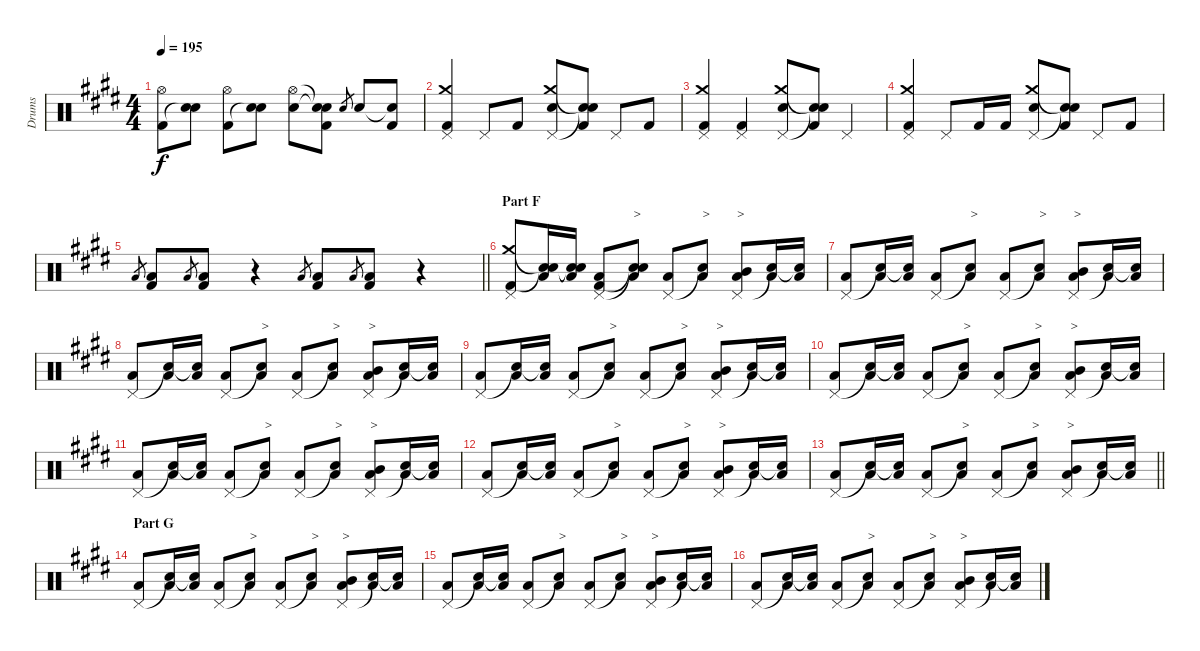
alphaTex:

\track ("Drums" "Drums") {instrument percussion}
\staff {score}
\articulation defaults
\ts (4 4)
\tempo 195
\clef neutral
\ks e
("Hi-Hat (open)" "Kick (hit) 2").8{dy f} ("Electric Snare (hit)" "Snare (hit)"{t}).8 ("Hi-Hat (open)" "Kick (hit) 2").8 ("Electric Snare (hit)" "Snare (hit)"{t}).8 ("Hi-Hat (open)" "Electric Snare (hit)").8 ("Snare (hit)"{t} "Snare (hit)"{t} "Kick (hit) 2").8 "Electric Snare (hit)".8{gr} "Electric Snare (hit)".8 ("Snare (hit)"{t} "Kick (hit) 2").8 |
("Crash medium (hit)" "Pedal Hi-Hat (hit)" "Kick (hit) 2").4 "Pedal Hi-Hat (hit)".8 "Kick (hit) 2".8 ("Crash medium (hit)" "Pedal Hi-Hat (hit)" "Electric Snare (hit)").8 ("Snare (hit)"{t} "Snare (hit)"{t} "Kick (hit) 2").8 "Pedal Hi-Hat (hit)".8 "Kick (hit) 2".8 |
("Crash medium (hit)" "Pedal Hi-Hat (hit)" "Kick (hit) 2").4 ("Pedal Hi-Hat (hit)" "Kick (hit) 2").4 ("Crash medium (hit)" "Pedal Hi-Hat (hit)" "Electric Snare (hit)").8 ("Snare (hit)"{t} "Snare (hit)"{t} "Kick (hit) 2").8 "Pedal Hi-Hat (hit)".4 |
("Crash medium (hit)" "Pedal Hi-Hat (hit)" "Kick (hit) 2").4 "Pedal Hi-Hat (hit)".8 "Kick (hit) 2".16 "Kick (hit) 2".16 ("Crash medium (hit)" "Pedal Hi-Hat (hit)" "Electric Snare (hit)").8 ("Snare (hit)"{t} "Snare (hit)"{t} "Kick (hit) 2").8 "Pedal Hi-Hat (hit)".8 "Kick (hit) 2".8 |
\barLineRight lightlight "Low Floor Tom (hit)".8{gr}
("Low Floor Tom (hit)" "Kick (hit) 2").8 "Low Floor Tom (hit)".8{gr} ("Low Floor Tom (hit)" "Kick (hit) 2").8 r.4 "Low Floor Tom (hit)".8{gr} ("Low Floor Tom (hit)" "Kick (hit) 2").8 "Low Floor Tom (hit)".8{gr} ("Low Floor Tom (hit)" "Kick (hit) 2").8 r.4 |
\section ("" "Part F")
("Crash medium (hit)" "Pedal Hi-Hat (hit)" "Kick (hit) 2").8 ("Snare (hit)"{t} "Low Floor Tom (hit)" "Snare (hit)"{t}).16 ("Snare (hit)"{t} "Low Floor Tom (hit)" "Snare (hit)"{t}).16 ("Pedal Hi-Hat (hit)" "Low Floor Tom (hit)" "Kick (hit) 2").8 ("Snare (hit)"{t} "Low Floor Tom (hit)" "Snare (hit)"{t}).8{txt ">"} ("Pedal Hi-Hat (hit)" "Low Floor Tom (hit)").8 ("Snare (hit)"{t} "Low Floor Tom (hit)").8{txt ">"} ("Pedal Hi-Hat (hit)" "Mid Tom (hit)" "Low Floor Tom (hit)").8{txt ">"} ("Snare (hit)"{t} "Low Floor Tom (hit)").16 ("Snare (hit)"{t} "Low Floor Tom (hit)").16 |
("Pedal Hi-Hat (hit)" "Low Floor Tom (hit)").8 ("Snare (hit)"{t} "Low Floor Tom (hit)").16 ("Snare (hit)"{t} "Low Floor Tom (hit)").16 ("Pedal Hi-Hat (hit)" "Low Floor Tom (hit)").8 ("Snare (hit)"{t} "Low Floor Tom (hit)").8{txt ">"} ("Pedal Hi-Hat (hit)" "Low Floor Tom (hit)").8 ("Snare (hit)"{t} "Low Floor Tom (hit)").8{txt ">"} ("Pedal Hi-Hat (hit)" "Mid Tom (hit)" "Low Floor Tom (hit)").8{txt ">"} ("Snare (hit)"{t} "Low Floor Tom (hit)").16 ("Snare (hit)"{t} "Low Floor Tom (hit)").16 |
("Pedal Hi-Hat (hit)" "Low Floor Tom (hit)").8 ("Snare (hit)"{t} "Low Floor Tom (hit)").16 ("Snare (hit)"{t} "Low Floor Tom (hit)").16 ("Pedal Hi-Hat (hit)" "Low Floor Tom (hit)").8 ("Snare (hit)"{t} "Low Floor Tom (hit)").8{txt ">"} ("Pedal Hi-Hat (hit)" "Low Floor Tom (hit)").8 ("Snare (hit)"{t} "Low Floor Tom (hit)").8{txt ">"} ("Pedal Hi-Hat (hit)" "Mid Tom (hit)" "Low Floor Tom (hit)").8{txt ">"} ("Snare (hit)"{t} "Low Floor Tom (hit)").16 ("Snare (hit)"{t} "Low Floor Tom (hit)").16 |
("Pedal Hi-Hat (hit)" "Low Floor Tom (hit)").8 ("Snare (hit)"{t} "Low Floor Tom (hit)").16 ("Snare (hit)"{t} "Low Floor Tom (hit)").16 ("Pedal Hi-Hat (hit)" "Low Floor Tom (hit)").8 ("Snare (hit)"{t} "Low Floor Tom (hit)").8{txt ">"} ("Pedal Hi-Hat (hit)" "Low Floor Tom (hit)").8 ("Snare (hit)"{t} "Low Floor Tom (hit)").8{txt ">"} ("Pedal Hi-Hat (hit)" "Mid Tom (hit)" "Low Floor Tom (hit)").8{txt ">"} ("Snare (hit)"{t} "Low Floor Tom (hit)").16 ("Snare (hit)"{t} "Low Floor Tom (hit)").16 |
("Pedal Hi-Hat (hit)" "Low Floor Tom (hit)").8 ("Snare (hit)"{t} "Low Floor Tom (hit)").16 ("Snare (hit)"{t} "Low Floor Tom (hit)").16 ("Pedal Hi-Hat (hit)" "Low Floor Tom (hit)").8 ("Snare (hit)"{t} "Low Floor Tom (hit)").8{txt ">"} ("Pedal Hi-Hat (hit)" "Low Floor Tom (hit)").8 ("Snare (hit)"{t} "Low Floor Tom (hit)").8{txt ">"} ("Pedal Hi-Hat (hit)" "Mid Tom (hit)" "Low Floor Tom (hit)").8{txt ">"} ("Snare (hit)"{t} "Low Floor Tom (hit)").16 ("Snare (hit)"{t} "Low Floor Tom (hit)").16 |
("Pedal Hi-Hat (hit)" "Low Floor Tom (hit)").8 ("Snare (hit)"{t} "Low Floor Tom (hit)").16 ("Snare (hit)"{t} "Low Floor Tom (hit)").16 ("Pedal Hi-Hat (hit)" "Low Floor Tom (hit)").8 ("Snare (hit)"{t} "Low Floor Tom (hit)").8{txt ">"} ("Pedal Hi-Hat (hit)" "Low Floor Tom (hit)").8 ("Snare (hit)"{t} "Low Floor Tom (hit)").8{txt ">"} ("Pedal Hi-Hat (hit)" "Mid Tom (hit)" "Low Floor Tom (hit)").8{txt ">"} ("Snare (hit)"{t} "Low Floor Tom (hit)").16 ("Snare (hit)"{t} "Low Floor Tom (hit)").16 |
("Pedal Hi-Hat (hit)" "Low Floor Tom (hit)").8 ("Snare (hit)"{t} "Low Floor Tom (hit)").16 ("Snare (hit)"{t} "Low Floor Tom (hit)").16 ("Pedal Hi-Hat (hit)" "Low Floor Tom (hit)").8 ("Snare (hit)"{t} "Low Floor Tom (hit)").8{txt ">"} ("Pedal Hi-Hat (hit)" "Low Floor Tom (hit)").8 ("Snare (hit)"{t} "Low Floor Tom (hit)").8{txt ">"} ("Pedal Hi-Hat (hit)" "Mid Tom (hit)" "Low Floor Tom (hit)").8{txt ">"} ("Snare (hit)"{t} "Low Floor Tom (hit)").16 ("Snare (hit)"{t} "Low Floor Tom (hit)").16 |
\barLineRight lightlight
("Pedal Hi-Hat (hit)" "Low Floor Tom (hit)").8 ("Snare (hit)"{t} "Low Floor Tom (hit)").16 ("Snare (hit)"{t} "Low Floor Tom (hit)").16 ("Pedal Hi-Hat (hit)" "Low Floor Tom (hit)").8 ("Snare (hit)"{t} "Low Floor Tom (hit)").8{txt ">"} ("Pedal Hi-Hat (hit)" "Low Floor Tom (hit)").8 ("Snare (hit)"{t} "Low Floor Tom (hit)").8{txt ">"} ("Pedal Hi-Hat (hit)" "Mid Tom (hit)" "Low Floor Tom (hit)").8{txt ">"} ("Snare (hit)"{t} "Low Floor Tom (hit)").16 ("Snare (hit)"{t} "Low Floor Tom (hit)").16 |
\section ("" "Part G")
("Pedal Hi-Hat (hit)" "Low Floor Tom (hit)").8 ("Snare (hit)"{t} "Low Floor Tom (hit)").16 ("Snare (hit)"{t} "Low Floor Tom (hit)").16 ("Pedal Hi-Hat (hit)" "Low Floor Tom (hit)").8 ("Snare (hit)"{t} "Low Floor Tom (hit)").8{txt ">"} ("Pedal Hi-Hat (hit)" "Low Floor Tom (hit)").8 ("Snare (hit)"{t} "Low Floor Tom (hit)").8{txt ">"} ("Pedal Hi-Hat (hit)" "Mid Tom (hit)" "Low Floor Tom (hit)").8{txt ">"} ("Snare (hit)"{t} "Low Floor Tom (hit)").16 ("Snare (hit)"{t} "Low Floor Tom (hit)").16 |
("Pedal Hi-Hat (hit)" "Low Floor Tom (hit)").8 ("Snare (hit)"{t} "Low Floor Tom (hit)").16 ("Snare (hit)"{t} "Low Floor Tom (hit)").16 ("Pedal Hi-Hat (hit)" "Low Floor Tom (hit)").8 ("Snare (hit)"{t} "Low Floor Tom (hit)").8{txt ">"} ("Pedal Hi-Hat (hit)" "Low Floor Tom (hit)").8 ("Snare (hit)"{t} "Low Floor Tom (hit)").8{txt ">"} ("Pedal Hi-Hat (hit)" "Mid Tom (hit)" "Low Floor Tom (hit)").8{txt ">"} ("Snare (hit)"{t} "Low Floor Tom (hit)").16 ("Snare (hit)"{t} "Low Floor Tom (hit)").16 |
("Pedal Hi-Hat (hit)" "Low Floor Tom (hit)").8 ("Snare (hit)"{t} "Low Floor Tom (hit)").16 ("Snare (hit)"{t} "Low Floor Tom (hit)").16 ("Pedal Hi-Hat (hit)" "Low Floor Tom (hit)").8 ("Snare (hit)"{t} "Low Floor Tom (hit)").8{txt ">"} ("Pedal Hi-Hat (hit)" "Low Floor Tom (hit)").8 ("Snare (hit)"{t} "Low Floor Tom (hit)").8{txt ">"} ("Pedal Hi-Hat (hit)" "Mid Tom (hit)" "Low Floor Tom (hit)").8{txt ">"} ("Snare (hit)"{t} "Low Floor Tom (hit)").16 ("Snare (hit)"{t} "Low Floor Tom (hit)").16
